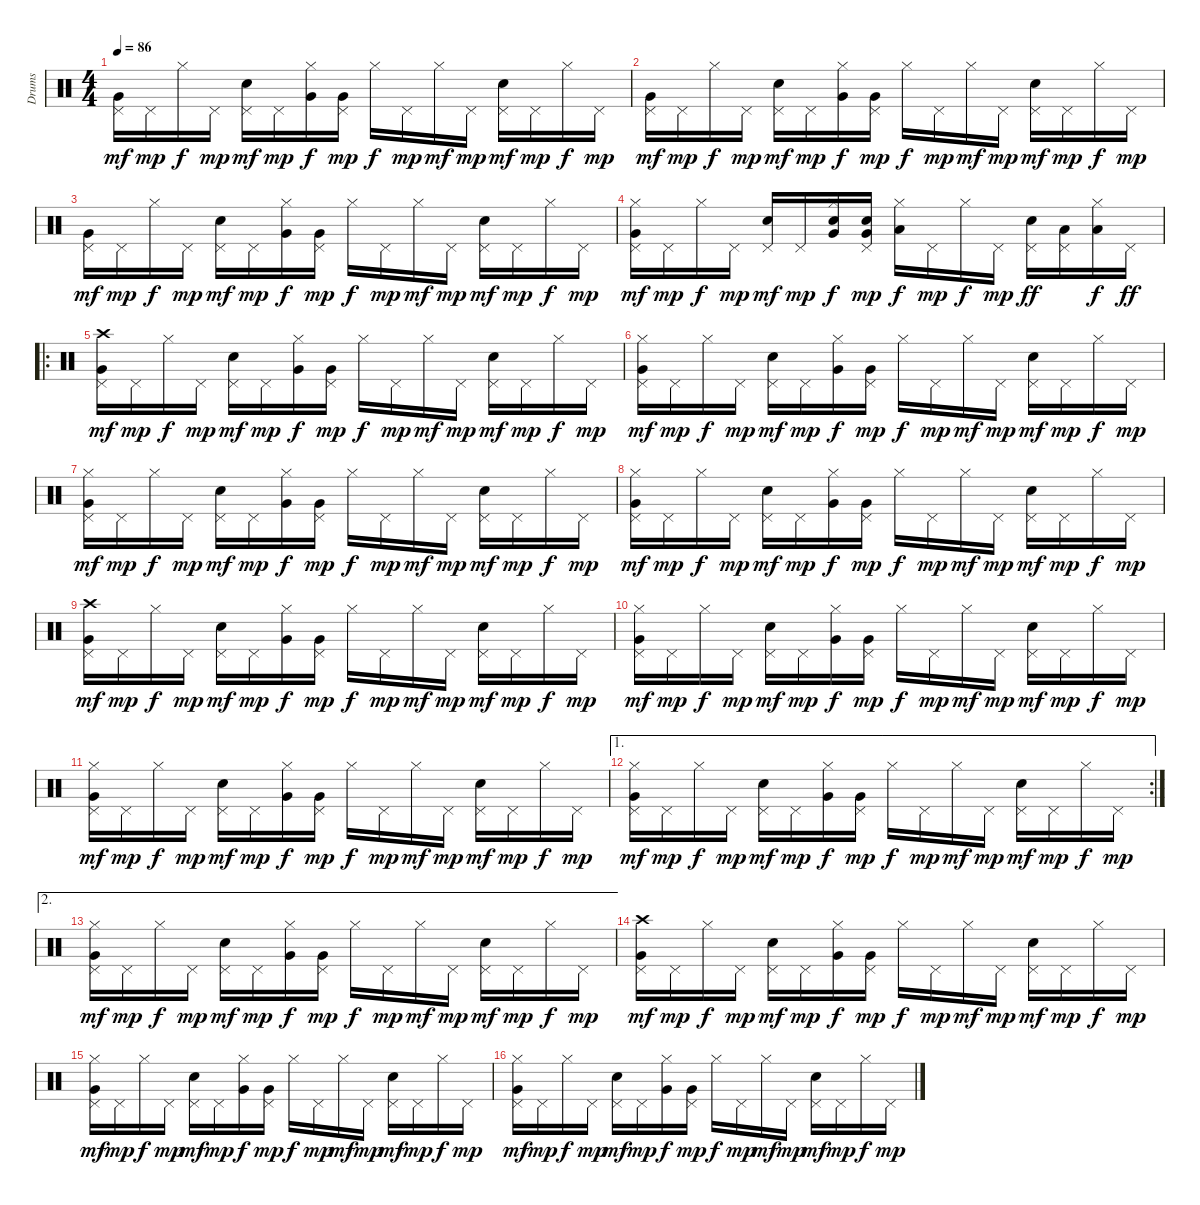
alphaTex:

\track ("Drums" "Drums") {instrument percussion}
\staff {score}
\articulation defaults
\ts (4 4)
\tempo 86
\clef neutral
\ks c
("Very Low Tom (hit)" "Pedal Hi-Hat (hit)").16{dy mf} "Pedal Hi-Hat (hit)".16{dy mp} "Hi-Hat (closed)".16{dy f} "Pedal Hi-Hat (hit)".16{dy mp} ("Electric Snare (hit)" "Pedal Hi-Hat (hit)").16{dy mf} "Pedal Hi-Hat (hit)".16{dy mp} ("Hi-Hat (closed)" "Very Low Tom (hit)").16{dy f} ("Very Low Tom (hit)" "Pedal Hi-Hat (hit)").16{dy mp} "Hi-Hat (closed)".16{dy f} "Pedal Hi-Hat (hit)".16{dy mp} "Hi-Hat (closed)".16{dy mf} "Pedal Hi-Hat (hit)".16{dy mp} ("Electric Snare (hit)" "Pedal Hi-Hat (hit)").16{dy mf} "Pedal Hi-Hat (hit)".16{dy mp} "Hi-Hat (closed)".16{dy f} "Pedal Hi-Hat (hit)".16{dy mp} |
("Very Low Tom (hit)" "Pedal Hi-Hat (hit)").16{dy mf} "Pedal Hi-Hat (hit)".16{dy mp} "Hi-Hat (closed)".16{dy f} "Pedal Hi-Hat (hit)".16{dy mp} ("Electric Snare (hit)" "Pedal Hi-Hat (hit)").16{dy mf} "Pedal Hi-Hat (hit)".16{dy mp} ("Hi-Hat (closed)" "Very Low Tom (hit)").16{dy f} ("Very Low Tom (hit)" "Pedal Hi-Hat (hit)").16{dy mp} "Hi-Hat (closed)".16{dy f} "Pedal Hi-Hat (hit)".16{dy mp} "Hi-Hat (closed)".16{dy mf} "Pedal Hi-Hat (hit)".16{dy mp} ("Electric Snare (hit)" "Pedal Hi-Hat (hit)").16{dy mf} "Pedal Hi-Hat (hit)".16{dy mp} "Hi-Hat (closed)".16{dy f} "Pedal Hi-Hat (hit)".16{dy mp} |
("Very Low Tom (hit)" "Pedal Hi-Hat (hit)").16{dy mf} "Pedal Hi-Hat (hit)".16{dy mp} "Hi-Hat (closed)".16{dy f} "Pedal Hi-Hat (hit)".16{dy mp} ("Electric Snare (hit)" "Pedal Hi-Hat (hit)").16{dy mf} "Pedal Hi-Hat (hit)".16{dy mp} ("Hi-Hat (closed)" "Very Low Tom (hit)").16{dy f} ("Very Low Tom (hit)" "Pedal Hi-Hat (hit)").16{dy mp} "Hi-Hat (closed)".16{dy f} "Pedal Hi-Hat (hit)".16{dy mp} "Hi-Hat (closed)".16{dy mf} "Pedal Hi-Hat (hit)".16{dy mp} ("Electric Snare (hit)" "Pedal Hi-Hat (hit)").16{dy mf} "Pedal Hi-Hat (hit)".16{dy mp} "Hi-Hat (closed)".16{dy f} "Pedal Hi-Hat (hit)".16{dy mp} |
("Hi-Hat (closed)" "Very Low Tom (hit)" "Pedal Hi-Hat (hit)").16{dy mf} "Pedal Hi-Hat (hit)".16{dy mp} "Hi-Hat (closed)".16{dy f} "Pedal Hi-Hat (hit)".16{dy mp} ("Electric Snare (hit)" "Pedal Hi-Hat (hit)").16{dy mf} "Pedal Hi-Hat (hit)".16{dy mp} ("Hi-Hat (closed)" "Electric Snare (hit)" "Very Low Tom (hit)").16{dy f} ("Electric Snare (hit)" "Very Low Tom (hit)" "Pedal Hi-Hat (hit)").16{dy mp} ("Hi-Hat (closed)" "Low Tom (hit)").16{dy f} "Pedal Hi-Hat (hit)".16{dy mp} "Hi-Hat (closed)".16{dy f} "Pedal Hi-Hat (hit)".16{dy mp} ("Electric Snare (hit)" "Pedal Hi-Hat (hit)").16{dy ff} ("Low Tom (hit)" "Pedal Hi-Hat (hit)").16 ("Hi-Hat (closed)" "Low Tom (hit)").16{dy f} "Pedal Hi-Hat (hit)".16{dy ff} |
\ro
("Crash high (hit)" "Very Low Tom (hit)" "Pedal Hi-Hat (hit)").16{dy mf} "Pedal Hi-Hat (hit)".16{dy mp} "Hi-Hat (closed)".16{dy f} "Pedal Hi-Hat (hit)".16{dy mp} ("Electric Snare (hit)" "Pedal Hi-Hat (hit)").16{dy mf} "Pedal Hi-Hat (hit)".16{dy mp} ("Hi-Hat (closed)" "Very Low Tom (hit)").16{dy f} ("Very Low Tom (hit)" "Pedal Hi-Hat (hit)").16{dy mp} "Hi-Hat (closed)".16{dy f} "Pedal Hi-Hat (hit)".16{dy mp} "Hi-Hat (closed)".16{dy mf} "Pedal Hi-Hat (hit)".16{dy mp} ("Electric Snare (hit)" "Pedal Hi-Hat (hit)").16{dy mf} "Pedal Hi-Hat (hit)".16{dy mp} "Hi-Hat (closed)".16{dy f} "Pedal Hi-Hat (hit)".16{dy mp} |
("Hi-Hat (closed)" "Very Low Tom (hit)" "Pedal Hi-Hat (hit)").16{dy mf} "Pedal Hi-Hat (hit)".16{dy mp} "Hi-Hat (closed)".16{dy f} "Pedal Hi-Hat (hit)".16{dy mp} ("Electric Snare (hit)" "Pedal Hi-Hat (hit)").16{dy mf} "Pedal Hi-Hat (hit)".16{dy mp} ("Hi-Hat (closed)" "Very Low Tom (hit)").16{dy f} ("Very Low Tom (hit)" "Pedal Hi-Hat (hit)").16{dy mp} "Hi-Hat (closed)".16{dy f} "Pedal Hi-Hat (hit)".16{dy mp} "Hi-Hat (closed)".16{dy mf} "Pedal Hi-Hat (hit)".16{dy mp} ("Electric Snare (hit)" "Pedal Hi-Hat (hit)").16{dy mf} "Pedal Hi-Hat (hit)".16{dy mp} "Hi-Hat (closed)".16{dy f} "Pedal Hi-Hat (hit)".16{dy mp} |
("Hi-Hat (closed)" "Very Low Tom (hit)" "Pedal Hi-Hat (hit)").16{dy mf} "Pedal Hi-Hat (hit)".16{dy mp} "Hi-Hat (closed)".16{dy f} "Pedal Hi-Hat (hit)".16{dy mp} ("Electric Snare (hit)" "Pedal Hi-Hat (hit)").16{dy mf} "Pedal Hi-Hat (hit)".16{dy mp} ("Hi-Hat (closed)" "Very Low Tom (hit)").16{dy f} ("Very Low Tom (hit)" "Pedal Hi-Hat (hit)").16{dy mp} "Hi-Hat (closed)".16{dy f} "Pedal Hi-Hat (hit)".16{dy mp} "Hi-Hat (closed)".16{dy mf} "Pedal Hi-Hat (hit)".16{dy mp} ("Electric Snare (hit)" "Pedal Hi-Hat (hit)").16{dy mf} "Pedal Hi-Hat (hit)".16{dy mp} "Hi-Hat (closed)".16{dy f} "Pedal Hi-Hat (hit)".16{dy mp} |
("Hi-Hat (closed)" "Very Low Tom (hit)" "Pedal Hi-Hat (hit)").16{dy mf} "Pedal Hi-Hat (hit)".16{dy mp} "Hi-Hat (closed)".16{dy f} "Pedal Hi-Hat (hit)".16{dy mp} ("Electric Snare (hit)" "Pedal Hi-Hat (hit)").16{dy mf} "Pedal Hi-Hat (hit)".16{dy mp} ("Hi-Hat (closed)" "Very Low Tom (hit)").16{dy f} ("Very Low Tom (hit)" "Pedal Hi-Hat (hit)").16{dy mp} "Hi-Hat (closed)".16{dy f} "Pedal Hi-Hat (hit)".16{dy mp} "Hi-Hat (closed)".16{dy mf} "Pedal Hi-Hat (hit)".16{dy mp} ("Electric Snare (hit)" "Pedal Hi-Hat (hit)").16{dy mf} "Pedal Hi-Hat (hit)".16{dy mp} "Hi-Hat (closed)".16{dy f} "Pedal Hi-Hat (hit)".16{dy mp} |
("Crash high (hit)" "Very Low Tom (hit)" "Pedal Hi-Hat (hit)").16{dy mf} "Pedal Hi-Hat (hit)".16{dy mp} "Hi-Hat (closed)".16{dy f} "Pedal Hi-Hat (hit)".16{dy mp} ("Electric Snare (hit)" "Pedal Hi-Hat (hit)").16{dy mf} "Pedal Hi-Hat (hit)".16{dy mp} ("Hi-Hat (closed)" "Very Low Tom (hit)").16{dy f} ("Very Low Tom (hit)" "Pedal Hi-Hat (hit)").16{dy mp} "Hi-Hat (closed)".16{dy f} "Pedal Hi-Hat (hit)".16{dy mp} "Hi-Hat (closed)".16{dy mf} "Pedal Hi-Hat (hit)".16{dy mp} ("Electric Snare (hit)" "Pedal Hi-Hat (hit)").16{dy mf} "Pedal Hi-Hat (hit)".16{dy mp} "Hi-Hat (closed)".16{dy f} "Pedal Hi-Hat (hit)".16{dy mp} |
("Hi-Hat (closed)" "Very Low Tom (hit)" "Pedal Hi-Hat (hit)").16{dy mf} "Pedal Hi-Hat (hit)".16{dy mp} "Hi-Hat (closed)".16{dy f} "Pedal Hi-Hat (hit)".16{dy mp} ("Electric Snare (hit)" "Pedal Hi-Hat (hit)").16{dy mf} "Pedal Hi-Hat (hit)".16{dy mp} ("Hi-Hat (closed)" "Very Low Tom (hit)").16{dy f} ("Very Low Tom (hit)" "Pedal Hi-Hat (hit)").16{dy mp} "Hi-Hat (closed)".16{dy f} "Pedal Hi-Hat (hit)".16{dy mp} "Hi-Hat (closed)".16{dy mf} "Pedal Hi-Hat (hit)".16{dy mp} ("Electric Snare (hit)" "Pedal Hi-Hat (hit)").16{dy mf} "Pedal Hi-Hat (hit)".16{dy mp} "Hi-Hat (closed)".16{dy f} "Pedal Hi-Hat (hit)".16{dy mp} |
("Hi-Hat (closed)" "Very Low Tom (hit)" "Pedal Hi-Hat (hit)").16{dy mf} "Pedal Hi-Hat (hit)".16{dy mp} "Hi-Hat (closed)".16{dy f} "Pedal Hi-Hat (hit)".16{dy mp} ("Electric Snare (hit)" "Pedal Hi-Hat (hit)").16{dy mf} "Pedal Hi-Hat (hit)".16{dy mp} ("Hi-Hat (closed)" "Very Low Tom (hit)").16{dy f} ("Very Low Tom (hit)" "Pedal Hi-Hat (hit)").16{dy mp} "Hi-Hat (closed)".16{dy f} "Pedal Hi-Hat (hit)".16{dy mp} "Hi-Hat (closed)".16{dy mf} "Pedal Hi-Hat (hit)".16{dy mp} ("Electric Snare (hit)" "Pedal Hi-Hat (hit)").16{dy mf} "Pedal Hi-Hat (hit)".16{dy mp} "Hi-Hat (closed)".16{dy f} "Pedal Hi-Hat (hit)".16{dy mp} |
\ae 1
\rc 2
("Hi-Hat (closed)" "Very Low Tom (hit)" "Pedal Hi-Hat (hit)").16{dy mf} "Pedal Hi-Hat (hit)".16{dy mp} "Hi-Hat (closed)".16{dy f} "Pedal Hi-Hat (hit)".16{dy mp} ("Electric Snare (hit)" "Pedal Hi-Hat (hit)").16{dy mf} "Pedal Hi-Hat (hit)".16{dy mp} ("Hi-Hat (closed)" "Very Low Tom (hit)").16{dy f} ("Very Low Tom (hit)" "Pedal Hi-Hat (hit)").16{dy mp} "Hi-Hat (closed)".16{dy f} "Pedal Hi-Hat (hit)".16{dy mp} "Hi-Hat (closed)".16{dy mf} "Pedal Hi-Hat (hit)".16{dy mp} ("Electric Snare (hit)" "Pedal Hi-Hat (hit)").16{dy mf} "Pedal Hi-Hat (hit)".16{dy mp} "Hi-Hat (closed)".16{dy f} "Pedal Hi-Hat (hit)".16{dy mp} |
\ae 2
("Hi-Hat (closed)" "Very Low Tom (hit)" "Pedal Hi-Hat (hit)").16{dy mf} "Pedal Hi-Hat (hit)".16{dy mp} "Hi-Hat (closed)".16{dy f} "Pedal Hi-Hat (hit)".16{dy mp} ("Electric Snare (hit)" "Pedal Hi-Hat (hit)").16{dy mf} "Pedal Hi-Hat (hit)".16{dy mp} ("Hi-Hat (closed)" "Very Low Tom (hit)").16{dy f} ("Very Low Tom (hit)" "Pedal Hi-Hat (hit)").16{dy mp} "Hi-Hat (closed)".16{dy f} "Pedal Hi-Hat (hit)".16{dy mp} "Hi-Hat (closed)".16{dy mf} "Pedal Hi-Hat (hit)".16{dy mp} ("Electric Snare (hit)" "Pedal Hi-Hat (hit)").16{dy mf} "Pedal Hi-Hat (hit)".16{dy mp} "Hi-Hat (closed)".16{dy f} "Pedal Hi-Hat (hit)".16{dy mp} |
("Crash high (hit)" "Very Low Tom (hit)" "Pedal Hi-Hat (hit)").16{dy mf} "Pedal Hi-Hat (hit)".16{dy mp} "Hi-Hat (closed)".16{dy f} "Pedal Hi-Hat (hit)".16{dy mp} ("Electric Snare (hit)" "Pedal Hi-Hat (hit)").16{dy mf} "Pedal Hi-Hat (hit)".16{dy mp} ("Hi-Hat (closed)" "Very Low Tom (hit)").16{dy f} ("Very Low Tom (hit)" "Pedal Hi-Hat (hit)").16{dy mp} "Hi-Hat (closed)".16{dy f} "Pedal Hi-Hat (hit)".16{dy mp} "Hi-Hat (closed)".16{dy mf} "Pedal Hi-Hat (hit)".16{dy mp} ("Electric Snare (hit)" "Pedal Hi-Hat (hit)").16{dy mf} "Pedal Hi-Hat (hit)".16{dy mp} "Hi-Hat (closed)".16{dy f} "Pedal Hi-Hat (hit)".16{dy mp} |
("Hi-Hat (closed)" "Very Low Tom (hit)" "Pedal Hi-Hat (hit)").16{dy mf} "Pedal Hi-Hat (hit)".16{dy mp} "Hi-Hat (closed)".16{dy f} "Pedal Hi-Hat (hit)".16{dy mp} ("Electric Snare (hit)" "Pedal Hi-Hat (hit)").16{dy mf} "Pedal Hi-Hat (hit)".16{dy mp} ("Hi-Hat (closed)" "Very Low Tom (hit)").16{dy f} ("Very Low Tom (hit)" "Pedal Hi-Hat (hit)").16{dy mp} "Hi-Hat (closed)".16{dy f} "Pedal Hi-Hat (hit)".16{dy mp} "Hi-Hat (closed)".16{dy mf} "Pedal Hi-Hat (hit)".16{dy mp} ("Electric Snare (hit)" "Pedal Hi-Hat (hit)").16{dy mf} "Pedal Hi-Hat (hit)".16{dy mp} "Hi-Hat (closed)".16{dy f} "Pedal Hi-Hat (hit)".16{dy mp} |
("Hi-Hat (closed)" "Very Low Tom (hit)" "Pedal Hi-Hat (hit)").16{dy mf} "Pedal Hi-Hat (hit)".16{dy mp} "Hi-Hat (closed)".16{dy f} "Pedal Hi-Hat (hit)".16{dy mp} ("Electric Snare (hit)" "Pedal Hi-Hat (hit)").16{dy mf} "Pedal Hi-Hat (hit)".16{dy mp} ("Hi-Hat (closed)" "Very Low Tom (hit)").16{dy f} ("Very Low Tom (hit)" "Pedal Hi-Hat (hit)").16{dy mp} "Hi-Hat (closed)".16{dy f} "Pedal Hi-Hat (hit)".16{dy mp} "Hi-Hat (closed)".16{dy mf} "Pedal Hi-Hat (hit)".16{dy mp} ("Electric Snare (hit)" "Pedal Hi-Hat (hit)").16{dy mf} "Pedal Hi-Hat (hit)".16{dy mp} "Hi-Hat (closed)".16{dy f} "Pedal Hi-Hat (hit)".16{dy mp}
